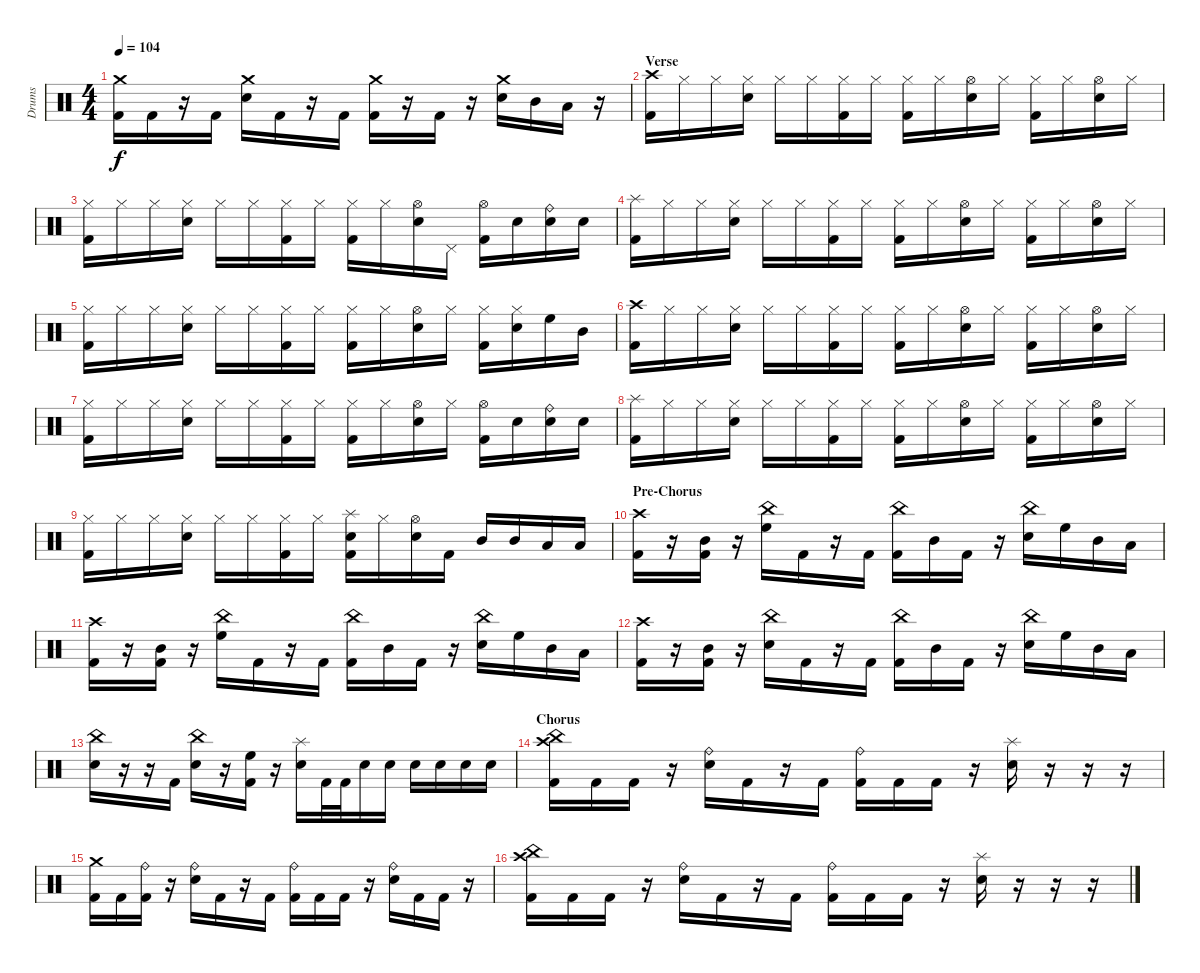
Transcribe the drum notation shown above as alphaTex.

\track ("Drums" "Drums") {instrument percussion}
\staff {score}
\articulation defaults
\ts (4 4)
\tempo 104
\clef neutral
\ks c
("Crash medium (hit)" "Kick (hit) 2").16{dy f} "Kick (hit) 2".16 r.16 "Kick (hit) 2".16 ("Crash medium (hit)" "Electric Snare (hit)").16 "Kick (hit) 2".16 r.16 "Kick (hit) 2".16 ("Crash medium (hit)" "Kick (hit) 2").16 r.16 "Kick (hit) 2".16 r.16 ("Crash medium (hit)" "Electric Snare (hit)").16 "Mid Tom (hit)".16 "Low Tom (hit)".16 r.16 |
\section ("" "Verse")
("Crash high (hit)" "Kick (hit) 2").16 "Hi-Hat (closed)".16 "Hi-Hat (closed)".16 ("Hi-Hat (closed)" "Electric Snare (hit)").16 "Hi-Hat (closed)".16 "Hi-Hat (closed)".16 ("Hi-Hat (closed)" "Kick (hit) 2").16 "Hi-Hat (closed)".16 ("Hi-Hat (closed)" "Kick (hit) 2").16 "Hi-Hat (closed)".16 ("Hi-Hat (open)" "Electric Snare (hit)").16 "Hi-Hat (closed)".16 ("Hi-Hat (closed)" "Kick (hit) 2").16 "Hi-Hat (closed)".16 ("Hi-Hat (open)" "Electric Snare (hit)").16 "Hi-Hat (closed)".16 |
("Hi-Hat (closed)" "Kick (hit) 2").16 "Hi-Hat (closed)".16 "Hi-Hat (closed)".16 ("Hi-Hat (closed)" "Electric Snare (hit)").16 "Hi-Hat (closed)".16 "Hi-Hat (closed)".16 ("Hi-Hat (closed)" "Kick (hit) 2").16 "Hi-Hat (closed)".16 ("Hi-Hat (closed)" "Kick (hit) 2").16 "Hi-Hat (closed)".16 ("Hi-Hat (open)" "Electric Snare (hit)").16 "Pedal Hi-Hat (hit)".16 ("Hi-Hat (open)" "Kick (hit) 2").16 "Electric Snare (hit)".16 ("Ride (bell)" "Electric Snare (hit)").16 "Electric Snare (hit)".16 |
("Splash (hit)" "Kick (hit) 2").16 "Hi-Hat (closed)".16 "Hi-Hat (closed)".16 ("Hi-Hat (closed)" "Electric Snare (hit)").16 "Hi-Hat (closed)".16 "Hi-Hat (closed)".16 ("Hi-Hat (closed)" "Kick (hit) 2").16 "Hi-Hat (closed)".16 ("Hi-Hat (closed)" "Kick (hit) 2").16 "Hi-Hat (closed)".16 ("Hi-Hat (open)" "Electric Snare (hit)").16 "Hi-Hat (closed)".16 ("Hi-Hat (closed)" "Kick (hit) 2").16 "Hi-Hat (closed)".16 ("Hi-Hat (open)" "Electric Snare (hit)").16 "Hi-Hat (closed)".16 |
("Hi-Hat (closed)" "Kick (hit) 2").16 "Hi-Hat (closed)".16 "Hi-Hat (closed)".16 ("Hi-Hat (closed)" "Electric Snare (hit)").16 "Hi-Hat (closed)".16 "Hi-Hat (closed)".16 ("Hi-Hat (closed)" "Kick (hit) 2").16 "Hi-Hat (closed)".16 ("Hi-Hat (closed)" "Kick (hit) 2").16 "Hi-Hat (closed)".16 ("Hi-Hat (open)" "Electric Snare (hit)").16 "Hi-Hat (closed)".16 ("Hi-Hat (closed)" "Kick (hit) 2").16 ("Hi-Hat (closed)" "Electric Snare (hit)").16 "High Floor Tom (hit)".16 "Mid Tom (hit)".16 |
("Crash high (hit)" "Kick (hit) 2").16 "Hi-Hat (closed)".16 "Hi-Hat (closed)".16 ("Hi-Hat (closed)" "Electric Snare (hit)").16 "Hi-Hat (closed)".16 "Hi-Hat (closed)".16 ("Hi-Hat (closed)" "Kick (hit) 2").16 "Hi-Hat (closed)".16 ("Hi-Hat (closed)" "Kick (hit) 2").16 "Hi-Hat (closed)".16 ("Hi-Hat (open)" "Electric Snare (hit)").16 "Hi-Hat (closed)".16 ("Hi-Hat (closed)" "Kick (hit) 2").16 "Hi-Hat (closed)".16 ("Hi-Hat (open)" "Electric Snare (hit)").16 "Hi-Hat (closed)".16 |
("Hi-Hat (closed)" "Kick (hit) 2").16 "Hi-Hat (closed)".16 "Hi-Hat (closed)".16 ("Hi-Hat (closed)" "Electric Snare (hit)").16 "Hi-Hat (closed)".16 "Hi-Hat (closed)".16 ("Hi-Hat (closed)" "Kick (hit) 2").16 "Hi-Hat (closed)".16 ("Hi-Hat (closed)" "Kick (hit) 2").16 "Hi-Hat (closed)".16 ("Hi-Hat (open)" "Electric Snare (hit)").16 "Hi-Hat (closed)".16 ("Hi-Hat (open)" "Kick (hit) 2").16 "Electric Snare (hit)".16 ("Ride (bell)" "Electric Snare (hit)").16 "Electric Snare (hit)".16 |
("Splash (hit)" "Kick (hit) 2").16 "Hi-Hat (closed)".16 "Hi-Hat (closed)".16 ("Hi-Hat (closed)" "Electric Snare (hit)").16 "Hi-Hat (closed)".16 "Hi-Hat (closed)".16 ("Hi-Hat (closed)" "Kick (hit) 2").16 "Hi-Hat (closed)".16 ("Hi-Hat (closed)" "Kick (hit) 2").16 "Hi-Hat (closed)".16 ("Hi-Hat (open)" "Electric Snare (hit)").16 "Hi-Hat (closed)".16 ("Hi-Hat (closed)" "Kick (hit) 2").16 "Hi-Hat (closed)".16 ("Hi-Hat (open)" "Electric Snare (hit)").16 "Hi-Hat (closed)".16 |
("Hi-Hat (closed)" "Kick (hit) 2").16 "Hi-Hat (closed)".16 "Hi-Hat (closed)".16 ("Hi-Hat (closed)" "Electric Snare (hit)").16 "Hi-Hat (closed)".16 "Hi-Hat (closed)".16 ("Hi-Hat (closed)" "Kick (hit) 2").16 "Hi-Hat (closed)".16 ("Splash (hit)" "Electric Snare (hit)" "Kick (hit) 2").16 "Hi-Hat (closed)".16 ("Hi-Hat (open)" "Electric Snare (hit)").16 "Kick (hit) 2".16 "Mid Tom (hit)".16 "Mid Tom (hit)".16 "Low Tom (hit)".16 "Low Tom (hit)".16 |
\section ("" "Pre-Chorus")
("Crash high (hit)" "Kick (hit) 2").16 r.16 ("Mid Tom (hit)" "Kick (hit) 2").16 r.16 ("China (hit)" "High Floor Tom (hit)").16 "Kick (hit) 2".16 r.16 "Kick (hit) 2".16 ("China (hit)" "Kick (hit) 2").16 "Mid Tom (hit)".16 "Kick (hit) 2".16 r.16 ("China (hit)" "Electric Snare (hit)").16 "High Floor Tom (hit)".16 "Mid Tom (hit)".16 "Low Tom (hit)".16 |
("Crash high (hit)" "Kick (hit) 2").16 r.16 ("Mid Tom (hit)" "Kick (hit) 2").16 r.16 ("China (hit)" "High Floor Tom (hit)").16 "Kick (hit) 2".16 r.16 "Kick (hit) 2".16 ("China (hit)" "Kick (hit) 2").16 "Mid Tom (hit)".16 "Kick (hit) 2".16 r.16 ("China (hit)" "Electric Snare (hit)").16 "High Floor Tom (hit)".16 "Mid Tom (hit)".16 "Low Tom (hit)".16 |
("Crash high (hit)" "Kick (hit) 2").16 r.16 ("Mid Tom (hit)" "Kick (hit) 2").16 r.16 ("China (hit)" "Electric Snare (hit)").16 "Kick (hit) 2".16 r.16 "Kick (hit) 2".16 ("China (hit)" "Kick (hit) 2").16 "Mid Tom (hit)".16 "Kick (hit) 2".16 r.16 ("China (hit)" "Electric Snare (hit)").16 "High Floor Tom (hit)".16 "Mid Tom (hit)".16 "Low Tom (hit)".16 |
("China (hit)" "Electric Snare (hit)").16 r.16 r.16 "Kick (hit) 2".16 ("China (hit)" "Electric Snare (hit)").16 r.16 ("High Floor Tom (hit)" "Kick (hit) 2").16 r.16 ("Splash (hit)" "Electric Snare (hit)").16 "Kick (hit) 2".32 "Kick (hit) 2".32 "Electric Snare (hit)".16 "Electric Snare (hit)".16 "Electric Snare (hit)".16 "Electric Snare (hit)".16 "Electric Snare (hit)".16 "Electric Snare (hit)".16 |
\section ("" "Chorus")
("China (hit)" "Crash high (hit)" "Kick (hit) 2").16 "Kick (hit) 2".16 "Kick (hit) 2".16 r.16 ("Ride (bell)" "Electric Snare (hit)").16 "Kick (hit) 2".16 r.16 "Kick (hit) 2".16 ("Ride (bell)" "Kick (hit) 2").16 "Kick (hit) 2".16 "Kick (hit) 2".16 r.16 ("Splash (hit)" "Electric Snare (hit)").16 r.16 r.16 r.16 |
("Crash medium (hit)" "Kick (hit) 2").16 "Kick (hit) 2".16 ("Ride (bell)" "Kick (hit) 2").16 r.16 ("Ride (bell)" "Electric Snare (hit)").16 "Kick (hit) 2".16 r.16 "Kick (hit) 2".16 ("Ride (bell)" "Kick (hit) 2").16 "Kick (hit) 2".16 "Kick (hit) 2".16 r.16 ("Ride (bell)" "Electric Snare (hit)").16 "Kick (hit) 2".16 "Kick (hit) 2".16 r.16 |
("China (hit)" "Crash high (hit)" "Kick (hit) 2").16 "Kick (hit) 2".16 "Kick (hit) 2".16 r.16 ("Ride (bell)" "Electric Snare (hit)").16 "Kick (hit) 2".16 r.16 "Kick (hit) 2".16 ("Ride (bell)" "Kick (hit) 2").16 "Kick (hit) 2".16 "Kick (hit) 2".16 r.16 ("Splash (hit)" "Electric Snare (hit)").16 r.16 r.16 r.16
